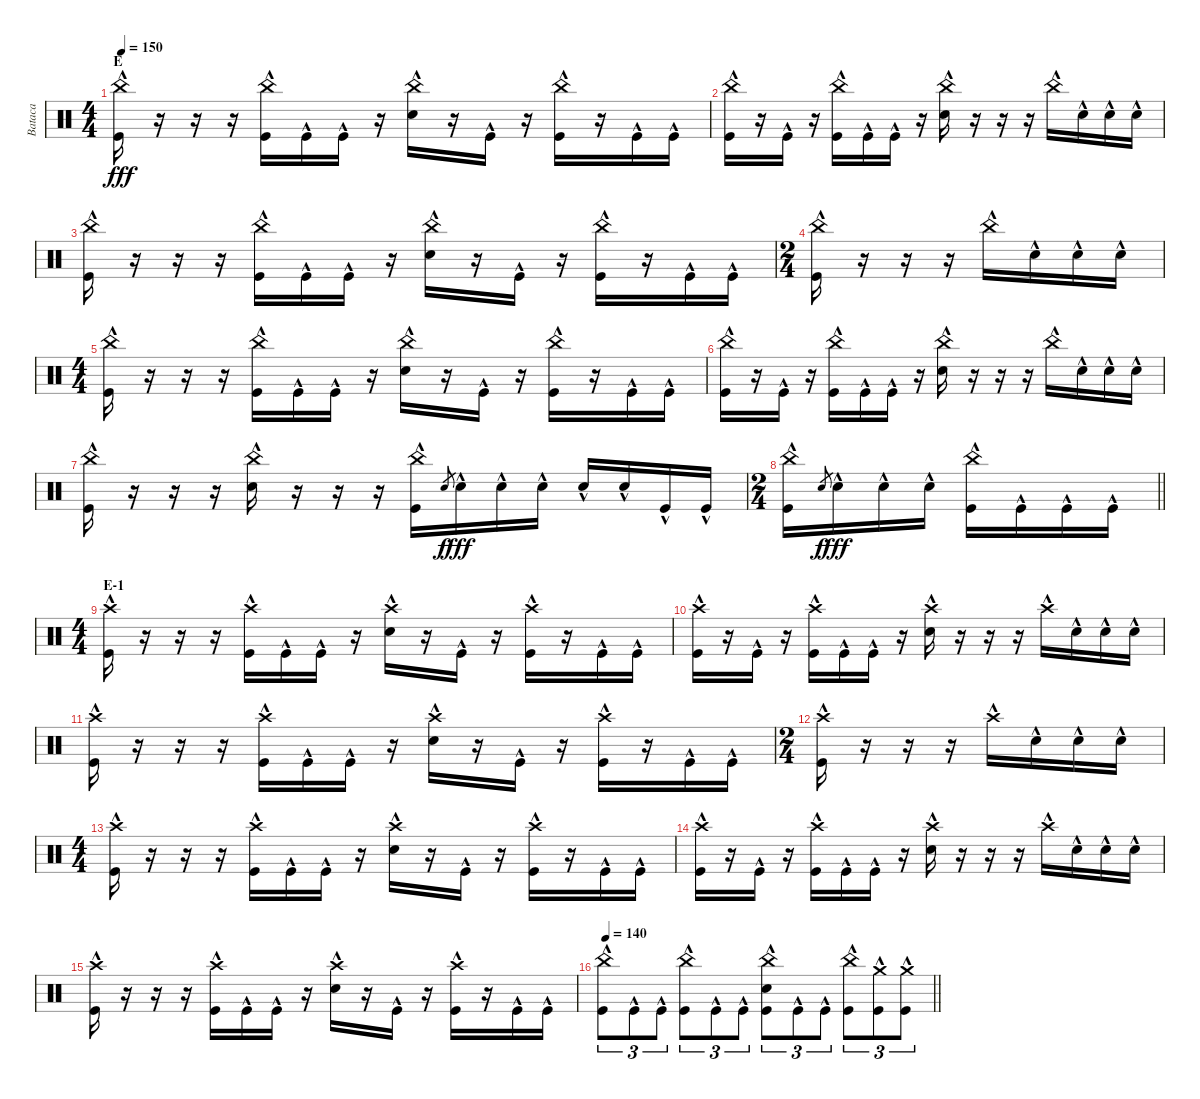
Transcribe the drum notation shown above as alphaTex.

\track ("Bataca" "Bataca") {instrument percussion}
\staff {score}
\articulation defaults
\ts (4 4)
\section ("" "E")
\tempo 150
\clef neutral
\ks c
("China (hit)"{hac} "Kick (hit)"{hac}).16{dy fff} r.16 r.16 r.16 ("China (hit)"{hac} "Kick (hit)"{hac}).16 "Kick (hit)"{hac}.16 "Kick (hit)"{hac}.16 r.16 ("China (hit)"{hac} "Electric Snare (hit)"{hac}).16 r.16 "Kick (hit)"{hac}.16 r.16 ("China (hit)"{hac} "Kick (hit)"{hac}).16 r.16 "Kick (hit)"{hac}.16 "Kick (hit)"{hac}.16 |
("China (hit)"{hac} "Kick (hit)"{hac}).16 r.16 "Kick (hit)"{hac}.16 r.16 ("China (hit)"{hac} "Kick (hit)"{hac}).16 "Kick (hit)"{hac}.16 "Kick (hit)"{hac}.16 r.16 ("China (hit)"{hac} "Electric Snare (hit)"{hac}).16 r.16 r.16 r.16 "China (hit)"{hac}.16 "Electric Snare (hit)"{hac}.16 "Electric Snare (hit)"{hac}.16 "Electric Snare (hit)"{hac}.16 |
("China (hit)"{hac} "Kick (hit)"{hac}).16 r.16 r.16 r.16 ("China (hit)"{hac} "Kick (hit)"{hac}).16 "Kick (hit)"{hac}.16 "Kick (hit)"{hac}.16 r.16 ("China (hit)"{hac} "Electric Snare (hit)"{hac}).16 r.16 "Kick (hit)"{hac}.16 r.16 ("China (hit)"{hac} "Kick (hit)"{hac}).16 r.16 "Kick (hit)"{hac}.16 "Kick (hit)"{hac}.16 |
\ts (2 4)
("China (hit)"{hac} "Kick (hit)"{hac}).16 r.16 r.16 r.16 "China (hit)"{hac}.16 "Electric Snare (hit)"{hac}.16 "Electric Snare (hit)"{hac}.16 "Electric Snare (hit)"{hac}.16 |
\ts (4 4)
("China (hit)"{hac} "Kick (hit)"{hac}).16 r.16 r.16 r.16 ("China (hit)"{hac} "Kick (hit)"{hac}).16 "Kick (hit)"{hac}.16 "Kick (hit)"{hac}.16 r.16 ("China (hit)"{hac} "Electric Snare (hit)"{hac}).16 r.16 "Kick (hit)"{hac}.16 r.16 ("China (hit)"{hac} "Kick (hit)"{hac}).16 r.16 "Kick (hit)"{hac}.16 "Kick (hit)"{hac}.16 |
("China (hit)"{hac} "Kick (hit)"{hac}).16 r.16 "Kick (hit)"{hac}.16 r.16 ("China (hit)"{hac} "Kick (hit)"{hac}).16 "Kick (hit)"{hac}.16 "Kick (hit)"{hac}.16 r.16 ("China (hit)"{hac} "Electric Snare (hit)"{hac}).16 r.16 r.16 r.16 "China (hit)"{hac}.16 "Electric Snare (hit)"{hac}.16 "Electric Snare (hit)"{hac}.16 "Electric Snare (hit)"{hac}.16 |
("China (hit)"{hac} "Kick (hit)"{hac}).16 r.16 r.16 r.16 ("China (hit)"{hac} "Electric Snare (hit)"{hac}).16 r.16 r.16 r.16 ("China (hit)"{hac} "Kick (hit)"{hac}).16 "Electric Snare (hit)".8{gr dy f} "Electric Snare (hit)"{hac}.16{dy fff} "Electric Snare (hit)"{hac}.16 "Electric Snare (hit)"{hac}.16 "Electric Snare (hit)"{hac}.16 "Electric Snare (hit)"{hac}.16 "Kick (hit)"{hac}.16 "Kick (hit)"{hac}.16 |
\ts (2 4)
\barLineRight lightlight
("China (hit)"{hac} "Kick (hit)"{hac}).16 "Electric Snare (hit)".8{gr dy f} "Electric Snare (hit)"{hac}.16{dy fff} "Electric Snare (hit)"{hac}.16 "Electric Snare (hit)"{hac}.16 ("China (hit)"{hac} "Kick (hit)"{hac}).16 "Kick (hit)"{hac}.16 "Kick (hit)"{hac}.16 "Kick (hit)"{hac}.16 |
\ts (4 4)
\section ("" "E-1")
("Crash high (hit)"{hac} "Kick (hit)"{hac}).16 r.16 r.16 r.16 ("Crash high (hit)"{hac} "Kick (hit)"{hac}).16 "Kick (hit)"{hac}.16 "Kick (hit)"{hac}.16 r.16 ("Crash high (hit)"{hac} "Electric Snare (hit)"{hac}).16 r.16 "Kick (hit)"{hac}.16 r.16 ("Crash high (hit)"{hac} "Kick (hit)"{hac}).16 r.16 "Kick (hit)"{hac}.16 "Kick (hit)"{hac}.16 |
("Crash high (hit)"{hac} "Kick (hit)"{hac}).16 r.16 "Kick (hit)"{hac}.16 r.16 ("Crash high (hit)"{hac} "Kick (hit)"{hac}).16 "Kick (hit)"{hac}.16 "Kick (hit)"{hac}.16 r.16 ("Crash high (hit)"{hac} "Electric Snare (hit)"{hac}).16 r.16 r.16 r.16 "Crash high (hit)"{hac}.16 "Electric Snare (hit)"{hac}.16 "Electric Snare (hit)"{hac}.16 "Electric Snare (hit)"{hac}.16 |
("Crash high (hit)"{hac} "Kick (hit)"{hac}).16 r.16 r.16 r.16 ("Crash high (hit)"{hac} "Kick (hit)"{hac}).16 "Kick (hit)"{hac}.16 "Kick (hit)"{hac}.16 r.16 ("Crash high (hit)"{hac} "Electric Snare (hit)"{hac}).16 r.16 "Kick (hit)"{hac}.16 r.16 ("Crash high (hit)"{hac} "Kick (hit)"{hac}).16 r.16 "Kick (hit)"{hac}.16 "Kick (hit)"{hac}.16 |
\ts (2 4)
("Crash high (hit)"{hac} "Kick (hit)"{hac}).16 r.16 r.16 r.16 "Crash high (hit)"{hac}.16 "Electric Snare (hit)"{hac}.16 "Electric Snare (hit)"{hac}.16 "Electric Snare (hit)"{hac}.16 |
\ts (4 4)
("Crash high (hit)"{hac} "Kick (hit)"{hac}).16 r.16 r.16 r.16 ("Crash high (hit)"{hac} "Kick (hit)"{hac}).16 "Kick (hit)"{hac}.16 "Kick (hit)"{hac}.16 r.16 ("Crash high (hit)"{hac} "Electric Snare (hit)"{hac}).16 r.16 "Kick (hit)"{hac}.16 r.16 ("Crash high (hit)"{hac} "Kick (hit)"{hac}).16 r.16 "Kick (hit)"{hac}.16 "Kick (hit)"{hac}.16 |
("Crash high (hit)"{hac} "Kick (hit)"{hac}).16 r.16 "Kick (hit)"{hac}.16 r.16 ("Crash high (hit)"{hac} "Kick (hit)"{hac}).16 "Kick (hit)"{hac}.16 "Kick (hit)"{hac}.16 r.16 ("Crash high (hit)"{hac} "Electric Snare (hit)"{hac}).16 r.16 r.16 r.16 "Crash high (hit)"{hac}.16 "Electric Snare (hit)"{hac}.16 "Electric Snare (hit)"{hac}.16 "Electric Snare (hit)"{hac}.16 |
("Crash high (hit)"{hac} "Kick (hit)"{hac}).16 r.16 r.16 r.16 ("Crash high (hit)"{hac} "Kick (hit)"{hac}).16 "Kick (hit)"{hac}.16 "Kick (hit)"{hac}.16 r.16 ("Crash high (hit)"{hac} "Electric Snare (hit)"{hac}).16 r.16 "Kick (hit)"{hac}.16 r.16 ("Crash high (hit)"{hac} "Kick (hit)"{hac}).16 r.16 "Kick (hit)"{hac}.16 "Kick (hit)"{hac}.16 |
\tempo 140
\barLineRight lightlight
("China (hit)"{hac} "Kick (hit)"{hac}).8{tu (3 2)} "Kick (hit)"{hac}.8{tu (3 2)} "Kick (hit)"{hac}.8{tu (3 2)} ("China (hit)"{hac} "Kick (hit)"{hac}).8{tu (3 2)} "Kick (hit)"{hac}.8{tu (3 2)} "Kick (hit)"{hac}.8{tu (3 2)} ("China (hit)"{hac} "Electric Snare (hit)"{hac} "Kick (hit)"{hac}).8{tu (3 2)} "Kick (hit)"{hac}.8{tu (3 2)} "Kick (hit)"{hac}.8{tu (3 2)} ("China (hit)"{hac} "Kick (hit)"{hac}).8{tu (3 2)} ("Crash medium (hit)"{hac} "Kick (hit)"{hac}).8{tu (3 2)} ("Crash medium (hit)"{hac} "Kick (hit)"{hac}).8{tu (3 2)}
